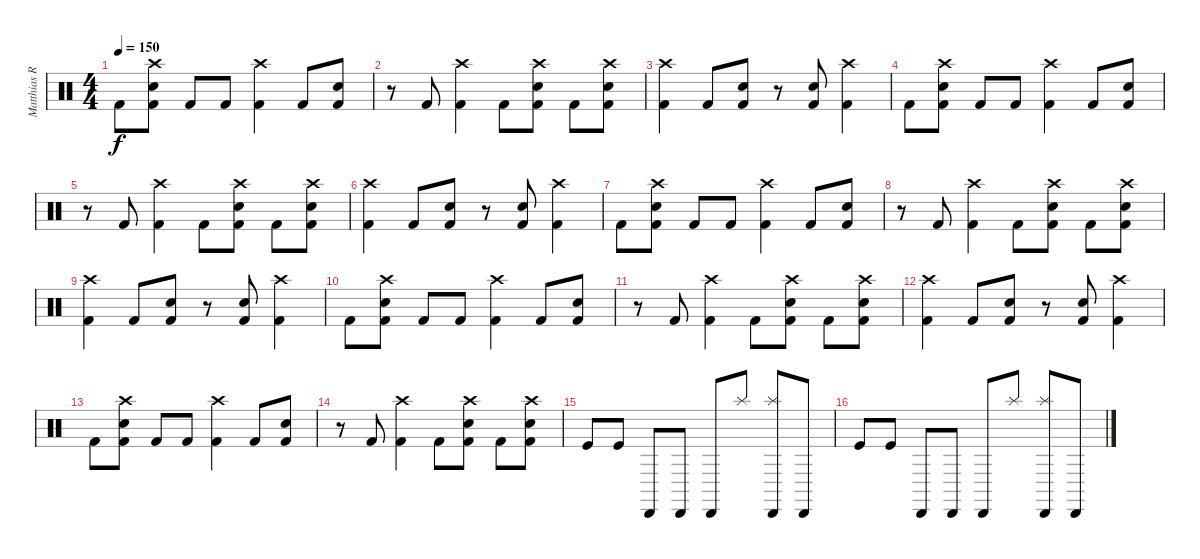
\track ("Matthias Rodig" "Matthias R") {instrument percussion}
\staff {score}
\articulation defaults
\ts (4 4)
\tempo 150
\clef neutral
\ks c "Kick (hit) 2".8{dy f}
("Kick (hit) 2" "Snare (hit) 2" "Crash high (hit)").8 "Kick (hit) 2".8 "Kick (hit) 2".8 ("Kick (hit) 2" "Crash high (hit)").4 "Kick (hit) 2".8 ("Kick (hit) 2" "Snare (hit) 2").8 |
r.8 "Kick (hit) 2".8 ("Kick (hit) 2" "Crash high (hit)").4 "Kick (hit) 2".8 ("Kick (hit) 2" "Snare (hit) 2" "Crash high (hit)").8 "Kick (hit) 2".8 ("Kick (hit) 2" "Snare (hit) 2" "Crash high (hit)").8 |
("Kick (hit) 2" "Crash high (hit)").4 "Kick (hit) 2".8 ("Kick (hit) 2" "Snare (hit) 2").8 r.8 ("Kick (hit) 2" "Snare (hit) 2").8 ("Kick (hit) 2" "Crash high (hit)").4 |
"Kick (hit) 2".8 ("Kick (hit) 2" "Snare (hit) 2" "Crash high (hit)").8 "Kick (hit) 2".8 "Kick (hit) 2".8 ("Kick (hit) 2" "Crash high (hit)").4 "Kick (hit) 2".8 ("Kick (hit) 2" "Snare (hit) 2").8 |
r.8 "Kick (hit) 2".8 ("Kick (hit) 2" "Crash high (hit)").4 "Kick (hit) 2".8 ("Kick (hit) 2" "Snare (hit) 2" "Crash high (hit)").8 "Kick (hit) 2".8 ("Kick (hit) 2" "Snare (hit) 2" "Crash high (hit)").8 |
("Kick (hit) 2" "Crash high (hit)").4{volume 12} "Kick (hit) 2".8 ("Kick (hit) 2" "Snare (hit) 2").8 r.8 ("Kick (hit) 2" "Snare (hit) 2").8 ("Kick (hit) 2" "Crash high (hit)").4 |
"Kick (hit) 2".8 ("Kick (hit) 2" "Snare (hit) 2" "Crash high (hit)").8 "Kick (hit) 2".8 "Kick (hit) 2".8 ("Kick (hit) 2" "Crash high (hit)").4 "Kick (hit) 2".8 ("Kick (hit) 2" "Snare (hit) 2").8 |
r.8 "Kick (hit) 2".8 ("Kick (hit) 2" "Crash high (hit)").4 "Kick (hit) 2".8 ("Kick (hit) 2" "Snare (hit) 2" "Crash high (hit)").8 "Kick (hit) 2".8 ("Kick (hit) 2" "Snare (hit) 2" "Crash high (hit)").8 |
("Kick (hit) 2" "Crash high (hit)").4 "Kick (hit) 2".8 ("Kick (hit) 2" "Snare (hit) 2").8 r.8 ("Kick (hit) 2" "Snare (hit) 2").8 ("Kick (hit) 2" "Crash high (hit)").4 |
"Kick (hit) 2".8 ("Kick (hit) 2" "Snare (hit) 2" "Crash high (hit)").8 "Kick (hit) 2".8 "Kick (hit) 2".8 ("Kick (hit) 2" "Crash high (hit)").4 "Kick (hit) 2".8 ("Kick (hit) 2" "Snare (hit) 2").8 |
r.8 "Kick (hit) 2".8 ("Kick (hit) 2" "Crash high (hit)").4 "Kick (hit) 2".8 ("Kick (hit) 2" "Snare (hit) 2" "Crash high (hit)").8 "Kick (hit) 2".8 ("Kick (hit) 2" "Snare (hit) 2" "Crash high (hit)").8 |
("Kick (hit) 2" "Crash high (hit)").4 "Kick (hit) 2".8 ("Kick (hit) 2" "Snare (hit) 2").8 r.8 ("Kick (hit) 2" "Snare (hit) 2").8 ("Kick (hit) 2" "Crash high (hit)").4 |
"Kick (hit) 2".8 ("Kick (hit) 2" "Snare (hit) 2" "Crash high (hit)").8 "Kick (hit) 2".8 "Kick (hit) 2".8 ("Kick (hit) 2" "Crash high (hit)").4 "Kick (hit) 2".8 ("Kick (hit) 2" "Snare (hit) 2").8 |
r.8 "Kick (hit) 2".8 ("Kick (hit) 2" "Crash high (hit)").4 "Kick (hit) 2".8 ("Kick (hit) 2" "Snare (hit) 2" "Crash high (hit)").8 "Kick (hit) 2".8 ("Kick (hit) 2" "Snare (hit) 2" "Crash high (hit)").8 |
"Kick (hit)".8{volume 15} "Kick (hit)".8 "Cabasa (hit)".8 "Cabasa (hit)".8 "Cabasa (hit)".8 "Splash (hit)".8 ("Splash (hit)" "Cabasa (hit)").8 "Cabasa (hit)".8 |
"Kick (hit)".8 "Kick (hit)".8 "Cabasa (hit)".8 "Cabasa (hit)".8 "Cabasa (hit)".8 "Splash (hit)".8 ("Splash (hit)" "Cabasa (hit)").8 "Cabasa (hit)".8
